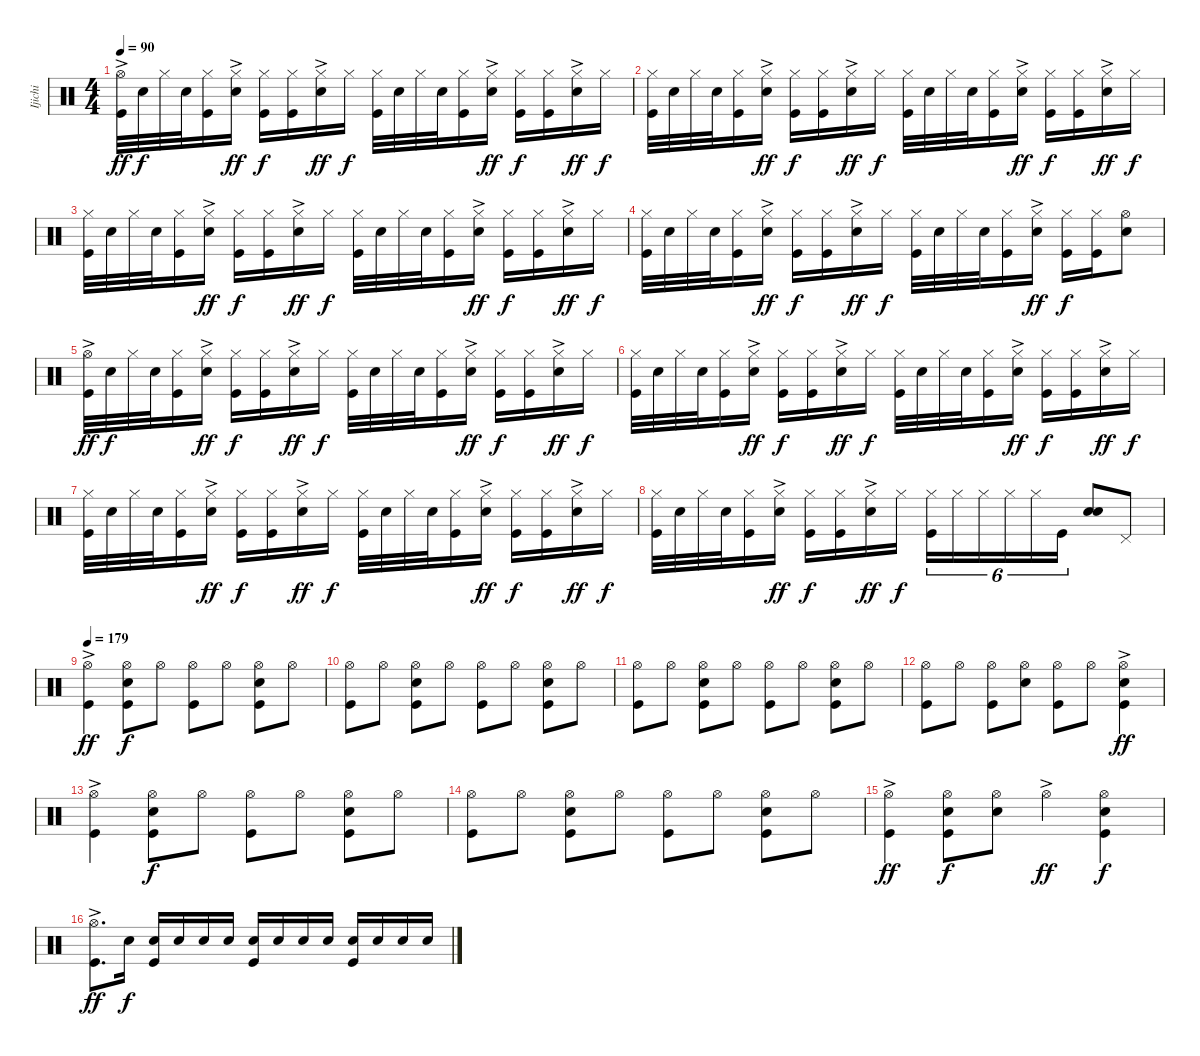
\track ("Ijichi" "Ijichi") {instrument percussion}
\staff {score}
\articulation defaults
\ts (4 4)
\tempo 90
\clef neutral
\ks c
("Hi-Hat (open)"{ac} "Kick (hit)").32{dy ff} "Snare (hit) 2".32{dy f} "Hi-Hat (closed)".32 "Snare (hit) 2".32 ("Hi-Hat (closed)" "Kick (hit)").16 ("Hi-Hat (closed)"{ac} "Snare (hit) 2").16{dy ff} ("Hi-Hat (closed)" "Kick (hit)").16{dy f} ("Hi-Hat (closed)" "Kick (hit)").16 ("Hi-Hat (closed)"{ac} "Snare (hit) 2").16{dy ff} "Hi-Hat (closed)".16{dy f} ("Hi-Hat (closed)" "Kick (hit)").32 "Snare (hit) 2".32 "Hi-Hat (closed)".32 "Snare (hit) 2".32 ("Hi-Hat (closed)" "Kick (hit)").16 ("Hi-Hat (closed)"{ac} "Snare (hit) 2").16{dy ff} ("Hi-Hat (closed)" "Kick (hit)").16{dy f} ("Hi-Hat (closed)" "Kick (hit)").16 ("Hi-Hat (closed)"{ac} "Snare (hit) 2").16{dy ff} "Hi-Hat (closed)".16{dy f} |
("Hi-Hat (closed)" "Kick (hit)").32 "Snare (hit) 2".32 "Hi-Hat (closed)".32 "Snare (hit) 2".32 ("Hi-Hat (closed)" "Kick (hit)").16 ("Hi-Hat (closed)"{ac} "Snare (hit) 2").16{dy ff} ("Hi-Hat (closed)" "Kick (hit)").16{dy f} ("Hi-Hat (closed)" "Kick (hit)").16 ("Hi-Hat (closed)"{ac} "Snare (hit) 2").16{dy ff} "Hi-Hat (closed)".16{dy f} ("Hi-Hat (closed)" "Kick (hit)").32 "Snare (hit) 2".32 "Hi-Hat (closed)".32 "Snare (hit) 2".32 ("Hi-Hat (closed)" "Kick (hit)").16 ("Hi-Hat (closed)"{ac} "Snare (hit) 2").16{dy ff} ("Hi-Hat (closed)" "Kick (hit)").16{dy f} ("Hi-Hat (closed)" "Kick (hit)").16 ("Hi-Hat (closed)"{ac} "Snare (hit) 2").16{dy ff} "Hi-Hat (closed)".16{dy f} |
("Hi-Hat (closed)" "Kick (hit)").32 "Snare (hit) 2".32 "Hi-Hat (closed)".32 "Snare (hit) 2".32 ("Hi-Hat (closed)" "Kick (hit)").16 ("Hi-Hat (closed)"{ac} "Snare (hit) 2").16{dy ff} ("Hi-Hat (closed)" "Kick (hit)").16{dy f} ("Hi-Hat (closed)" "Kick (hit)").16 ("Hi-Hat (closed)"{ac} "Snare (hit) 2").16{dy ff} "Hi-Hat (closed)".16{dy f} ("Hi-Hat (closed)" "Kick (hit)").32 "Snare (hit) 2".32 "Hi-Hat (closed)".32 "Snare (hit) 2".32 ("Hi-Hat (closed)" "Kick (hit)").16 ("Hi-Hat (closed)"{ac} "Snare (hit) 2").16{dy ff} ("Hi-Hat (closed)" "Kick (hit)").16{dy f} ("Hi-Hat (closed)" "Kick (hit)").16 ("Hi-Hat (closed)"{ac} "Snare (hit) 2").16{dy ff} "Hi-Hat (closed)".16{dy f} |
("Hi-Hat (closed)" "Kick (hit)").32 "Snare (hit) 2".32 "Hi-Hat (closed)".32 "Snare (hit) 2".32 ("Hi-Hat (closed)" "Kick (hit)").16 ("Hi-Hat (closed)"{ac} "Snare (hit) 2").16{dy ff} ("Hi-Hat (closed)" "Kick (hit)").16{dy f} ("Hi-Hat (closed)" "Kick (hit)").16 ("Hi-Hat (closed)"{ac} "Snare (hit) 2").16{dy ff} "Hi-Hat (closed)".16{dy f} ("Hi-Hat (closed)" "Kick (hit)").32 "Snare (hit) 2".32 "Hi-Hat (closed)".32 "Snare (hit) 2".32 ("Hi-Hat (closed)" "Kick (hit)").16 ("Hi-Hat (closed)"{ac} "Snare (hit) 2").16{dy ff} ("Hi-Hat (closed)" "Kick (hit)").16{dy f} ("Hi-Hat (closed)" "Kick (hit)").16 ("Hi-Hat (open)" "Snare (hit) 2").8 |
("Hi-Hat (open)"{ac} "Kick (hit)").32{dy ff} "Snare (hit) 2".32{dy f} "Hi-Hat (closed)".32 "Snare (hit) 2".32 ("Hi-Hat (closed)" "Kick (hit)").16 ("Hi-Hat (closed)"{ac} "Snare (hit) 2").16{dy ff} ("Hi-Hat (closed)" "Kick (hit)").16{dy f} ("Hi-Hat (closed)" "Kick (hit)").16 ("Hi-Hat (closed)"{ac} "Snare (hit) 2").16{dy ff} "Hi-Hat (closed)".16{dy f} ("Hi-Hat (closed)" "Kick (hit)").32 "Snare (hit) 2".32 "Hi-Hat (closed)".32 "Snare (hit) 2".32 ("Hi-Hat (closed)" "Kick (hit)").16 ("Hi-Hat (closed)"{ac} "Snare (hit) 2").16{dy ff} ("Hi-Hat (closed)" "Kick (hit)").16{dy f} ("Hi-Hat (closed)" "Kick (hit)").16 ("Hi-Hat (closed)"{ac} "Snare (hit) 2").16{dy ff} "Hi-Hat (closed)".16{dy f} |
("Hi-Hat (closed)" "Kick (hit)").32 "Snare (hit) 2".32 "Hi-Hat (closed)".32 "Snare (hit) 2".32 ("Hi-Hat (closed)" "Kick (hit)").16 ("Hi-Hat (closed)"{ac} "Snare (hit) 2").16{dy ff} ("Hi-Hat (closed)" "Kick (hit)").16{dy f} ("Hi-Hat (closed)" "Kick (hit)").16 ("Hi-Hat (closed)"{ac} "Snare (hit) 2").16{dy ff} "Hi-Hat (closed)".16{dy f} ("Hi-Hat (closed)" "Kick (hit)").32 "Snare (hit) 2".32 "Hi-Hat (closed)".32 "Snare (hit) 2".32 ("Hi-Hat (closed)" "Kick (hit)").16 ("Hi-Hat (closed)"{ac} "Snare (hit) 2").16{dy ff} ("Hi-Hat (closed)" "Kick (hit)").16{dy f} ("Hi-Hat (closed)" "Kick (hit)").16 ("Hi-Hat (closed)"{ac} "Snare (hit) 2").16{dy ff} "Hi-Hat (closed)".16{dy f} |
("Hi-Hat (closed)" "Kick (hit)").32 "Snare (hit) 2".32 "Hi-Hat (closed)".32 "Snare (hit) 2".32 ("Hi-Hat (closed)" "Kick (hit)").16 ("Hi-Hat (closed)"{ac} "Snare (hit) 2").16{dy ff} ("Hi-Hat (closed)" "Kick (hit)").16{dy f} ("Hi-Hat (closed)" "Kick (hit)").16 ("Hi-Hat (closed)"{ac} "Snare (hit) 2").16{dy ff} "Hi-Hat (closed)".16{dy f} ("Hi-Hat (closed)" "Kick (hit)").32 "Snare (hit) 2".32 "Hi-Hat (closed)".32 "Snare (hit) 2".32 ("Hi-Hat (closed)" "Kick (hit)").16 ("Hi-Hat (closed)"{ac} "Snare (hit) 2").16{dy ff} ("Hi-Hat (closed)" "Kick (hit)").16{dy f} ("Hi-Hat (closed)" "Kick (hit)").16 ("Hi-Hat (closed)"{ac} "Snare (hit) 2").16{dy ff} "Hi-Hat (closed)".16{dy f} |
("Hi-Hat (closed)" "Kick (hit)").32 "Snare (hit) 2".32 "Hi-Hat (closed)".32 "Snare (hit) 2".32 ("Hi-Hat (closed)" "Kick (hit)").16 ("Hi-Hat (closed)"{ac} "Snare (hit) 2").16{dy ff} ("Hi-Hat (closed)" "Kick (hit)").16{dy f} ("Hi-Hat (closed)" "Kick (hit)").16 ("Hi-Hat (closed)"{ac} "Snare (hit) 2").16{dy ff} "Hi-Hat (closed)".16{dy f} ("Hi-Hat (closed)" "Kick (hit)").16{tu (6 4)} "Hi-Hat (closed)".16{tu (6 4)} "Hi-Hat (closed)".16{tu (6 4)} "Hi-Hat (closed)".16{tu (6 4)} "Hi-Hat (closed)".16{tu (6 4)} "Kick (hit)".16{tu (6 4)} ("Snare (hit) 2" "Snare (hit) 2").8 "Pedal Hi-Hat (hit)".8 |
\tempo 179
("Hi-Hat (open)"{ac} "Kick (hit)").4{dy ff} ("Hi-Hat (open)" "Snare (hit) 2" "Kick (hit)").8{dy f} "Hi-Hat (open)".8 ("Hi-Hat (open)" "Kick (hit)").8 "Hi-Hat (open)".8 ("Hi-Hat (open)" "Snare (hit) 2" "Kick (hit)").8 "Hi-Hat (open)".8 |
("Hi-Hat (open)" "Kick (hit)").8 "Hi-Hat (open)".8 ("Hi-Hat (open)" "Snare (hit) 2" "Kick (hit)").8 "Hi-Hat (open)".8 ("Hi-Hat (open)" "Kick (hit)").8 "Hi-Hat (open)".8 ("Hi-Hat (open)" "Snare (hit) 2" "Kick (hit)").8 "Hi-Hat (open)".8 |
("Hi-Hat (open)" "Kick (hit)").8 "Hi-Hat (open)".8 ("Hi-Hat (open)" "Snare (hit) 2" "Kick (hit)").8 "Hi-Hat (open)".8 ("Hi-Hat (open)" "Kick (hit)").8 "Hi-Hat (open)".8 ("Hi-Hat (open)" "Snare (hit) 2" "Kick (hit)").8 "Hi-Hat (open)".8 |
("Hi-Hat (open)" "Kick (hit)").8 "Hi-Hat (open)".8 ("Hi-Hat (open)" "Kick (hit)").8 ("Hi-Hat (open)" "Snare (hit) 2").8 ("Hi-Hat (open)" "Kick (hit)").8 "Hi-Hat (open)".8 ("Hi-Hat (open)"{ac} "Snare (hit) 2" "Kick (hit)").4{dy ff} |
("Hi-Hat (open)"{ac} "Kick (hit)").4 ("Hi-Hat (open)" "Snare (hit) 2" "Kick (hit)").8{dy f} "Hi-Hat (open)".8 ("Hi-Hat (open)" "Kick (hit)").8 "Hi-Hat (open)".8 ("Hi-Hat (open)" "Snare (hit) 2" "Kick (hit)").8 "Hi-Hat (open)".8 |
("Hi-Hat (open)" "Kick (hit)").8 "Hi-Hat (open)".8 ("Hi-Hat (open)" "Snare (hit) 2" "Kick (hit)").8 "Hi-Hat (open)".8 ("Hi-Hat (open)" "Kick (hit)").8 "Hi-Hat (open)".8 ("Hi-Hat (open)" "Snare (hit) 2" "Kick (hit)").8 "Hi-Hat (open)".8 |
("Hi-Hat (open)"{ac} "Kick (hit)").4{dy ff} ("Hi-Hat (open)" "Snare (hit) 2" "Kick (hit)").8{dy f} ("Hi-Hat (open)" "Snare (hit) 2").8 "Hi-Hat (open)"{ac}.4{dy ff} ("Hi-Hat (open)" "Snare (hit) 2" "Kick (hit)").4{dy f} |
("Hi-Hat (open)"{ac} "Kick (hit)").8{d dy ff} "Snare (hit) 2".16{dy f} ("Snare (hit) 2" "Kick (hit)").16 "Snare (hit) 2".16 "Snare (hit) 2".16 "Snare (hit) 2".16 ("Snare (hit) 2" "Kick (hit)").16 "Snare (hit) 2".16 "Snare (hit) 2".16 "Snare (hit) 2".16 ("Snare (hit) 2" "Kick (hit)").16 "Snare (hit) 2".16 "Snare (hit) 2".16 "Snare (hit) 2".16
